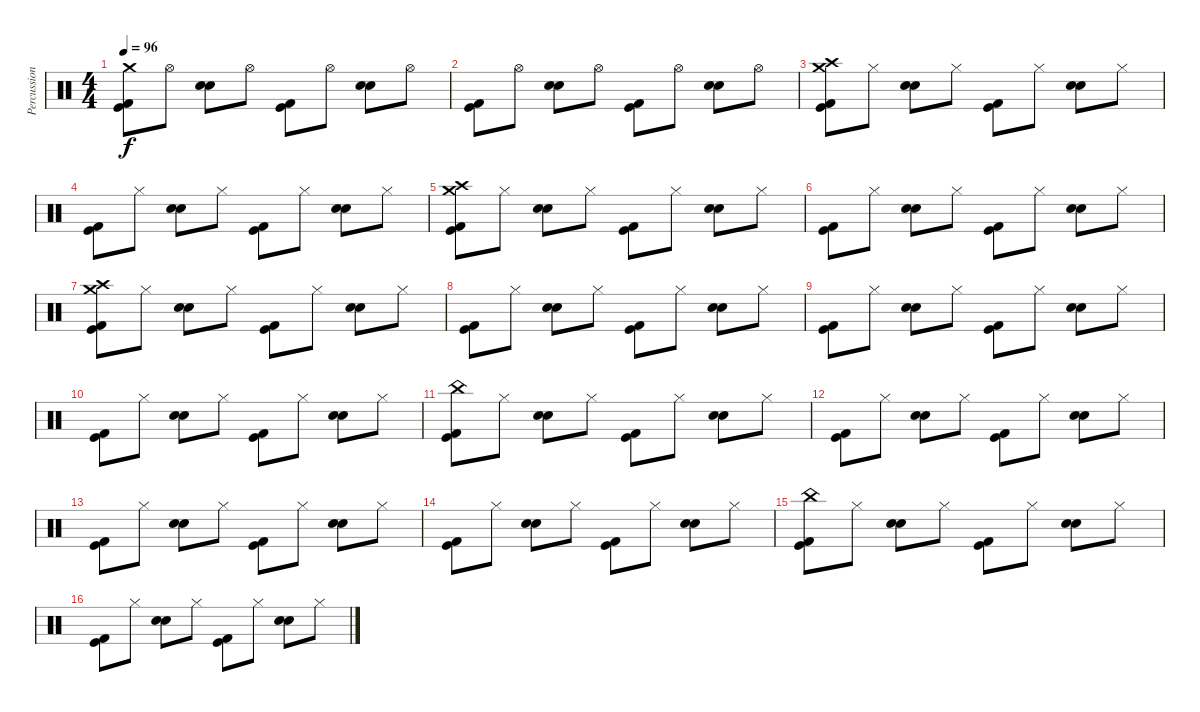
\track ("Percussion" "Percussion") {instrument percussion}
\staff {score}
\articulation defaults
\ts (4 4)
\tempo 96
\clef neutral
\ks c
("Crash medium (hit)" "Kick (hit) 2" "Kick (hit)").8{dy f} "Hi-Hat (open)".8 ("Snare (hit) 2" "Electric Snare (hit)").8 "Hi-Hat (open)".8 ("Kick (hit)" "Kick (hit) 2").8 "Hi-Hat (open)".8 ("Electric Snare (hit)" "Snare (hit) 2").8 "Hi-Hat (open)".8 |
("Kick (hit) 2" "Kick (hit)").8 "Hi-Hat (open)".8 ("Snare (hit) 2" "Electric Snare (hit)").8 "Hi-Hat (open)".8 ("Kick (hit)" "Kick (hit) 2").8 "Hi-Hat (open)".8 ("Electric Snare (hit)" "Snare (hit) 2").8 "Hi-Hat (open)".8 |
("Crash medium (hit)" "Crash high (hit)" "Kick (hit) 2" "Kick (hit)").8 "Hi-Hat (closed)".8 ("Snare (hit) 2" "Electric Snare (hit)").8 "Hi-Hat (closed)".8 ("Kick (hit)" "Kick (hit) 2").8 "Hi-Hat (closed)".8 ("Electric Snare (hit)" "Snare (hit) 2").8 "Hi-Hat (closed)".8 |
("Kick (hit) 2" "Kick (hit)").8 "Hi-Hat (closed)".8 ("Snare (hit) 2" "Electric Snare (hit)").8 "Hi-Hat (closed)".8 ("Kick (hit)" "Kick (hit) 2").8 "Hi-Hat (closed)".8 ("Electric Snare (hit)" "Snare (hit) 2").8 "Hi-Hat (closed)".8 |
("Crash medium (hit)" "Crash high (hit)" "Kick (hit) 2" "Kick (hit)").8 "Hi-Hat (closed)".8 ("Snare (hit) 2" "Electric Snare (hit)").8 "Hi-Hat (closed)".8 ("Kick (hit)" "Kick (hit) 2").8 "Hi-Hat (closed)".8 ("Electric Snare (hit)" "Snare (hit) 2").8 "Hi-Hat (closed)".8 |
("Kick (hit) 2" "Kick (hit)").8 "Hi-Hat (closed)".8 ("Snare (hit) 2" "Electric Snare (hit)").8 "Hi-Hat (closed)".8 ("Kick (hit)" "Kick (hit) 2").8 "Hi-Hat (closed)".8 ("Electric Snare (hit)" "Snare (hit) 2").8 "Hi-Hat (closed)".8 |
("Crash medium (hit)" "Crash high (hit)" "Kick (hit) 2" "Kick (hit)").8 "Hi-Hat (closed)".8 ("Snare (hit) 2" "Electric Snare (hit)").8 "Hi-Hat (closed)".8 ("Kick (hit)" "Kick (hit) 2").8 "Hi-Hat (closed)".8 ("Electric Snare (hit)" "Snare (hit) 2").8 "Hi-Hat (closed)".8 |
("Kick (hit) 2" "Kick (hit)").8 "Hi-Hat (closed)".8 ("Snare (hit) 2" "Electric Snare (hit)").8 "Hi-Hat (closed)".8 ("Kick (hit)" "Kick (hit) 2").8 "Hi-Hat (closed)".8 ("Electric Snare (hit)" "Snare (hit) 2").8 "Hi-Hat (closed)".8 |
("Kick (hit) 2" "Kick (hit)").8 "Hi-Hat (closed)".8 ("Snare (hit) 2" "Electric Snare (hit)").8 "Hi-Hat (closed)".8 ("Kick (hit)" "Kick (hit) 2").8 "Hi-Hat (closed)".8 ("Electric Snare (hit)" "Snare (hit) 2").8 "Hi-Hat (closed)".8 |
("Kick (hit) 2" "Kick (hit)").8 "Hi-Hat (closed)".8 ("Snare (hit) 2" "Electric Snare (hit)").8 "Hi-Hat (closed)".8 ("Kick (hit)" "Kick (hit) 2").8 "Hi-Hat (closed)".8 ("Electric Snare (hit)" "Snare (hit) 2").8 "Hi-Hat (closed)".8 |
("China (hit)" "Kick (hit) 2" "Kick (hit)").8 "Hi-Hat (closed)".8 ("Snare (hit) 2" "Electric Snare (hit)").8 "Hi-Hat (closed)".8 ("Kick (hit)" "Kick (hit) 2").8 "Hi-Hat (closed)".8 ("Electric Snare (hit)" "Snare (hit) 2").8 "Hi-Hat (closed)".8 |
("Kick (hit) 2" "Kick (hit)").8 "Hi-Hat (closed)".8 ("Snare (hit) 2" "Electric Snare (hit)").8 "Hi-Hat (closed)".8 ("Kick (hit)" "Kick (hit) 2").8 "Hi-Hat (closed)".8 ("Electric Snare (hit)" "Snare (hit) 2").8 "Hi-Hat (closed)".8 |
("Kick (hit) 2" "Kick (hit)").8 "Hi-Hat (closed)".8 ("Snare (hit) 2" "Electric Snare (hit)").8 "Hi-Hat (closed)".8 ("Kick (hit)" "Kick (hit) 2").8 "Hi-Hat (closed)".8 ("Electric Snare (hit)" "Snare (hit) 2").8 "Hi-Hat (closed)".8 |
("Kick (hit) 2" "Kick (hit)").8 "Hi-Hat (closed)".8 ("Snare (hit) 2" "Electric Snare (hit)").8 "Hi-Hat (closed)".8 ("Kick (hit)" "Kick (hit) 2").8 "Hi-Hat (closed)".8 ("Electric Snare (hit)" "Snare (hit) 2").8 "Hi-Hat (closed)".8 |
("China (hit)" "Kick (hit) 2" "Kick (hit)").8 "Hi-Hat (closed)".8 ("Snare (hit) 2" "Electric Snare (hit)").8 "Hi-Hat (closed)".8 ("Kick (hit)" "Kick (hit) 2").8 "Hi-Hat (closed)".8 ("Electric Snare (hit)" "Snare (hit) 2").8 "Hi-Hat (closed)".8 |
("Kick (hit) 2" "Kick (hit)").8 "Hi-Hat (closed)".8 ("Snare (hit) 2" "Electric Snare (hit)").8 "Hi-Hat (closed)".8 ("Kick (hit)" "Kick (hit) 2").8 "Hi-Hat (closed)".8 ("Electric Snare (hit)" "Snare (hit) 2").8 "Hi-Hat (closed)".8
